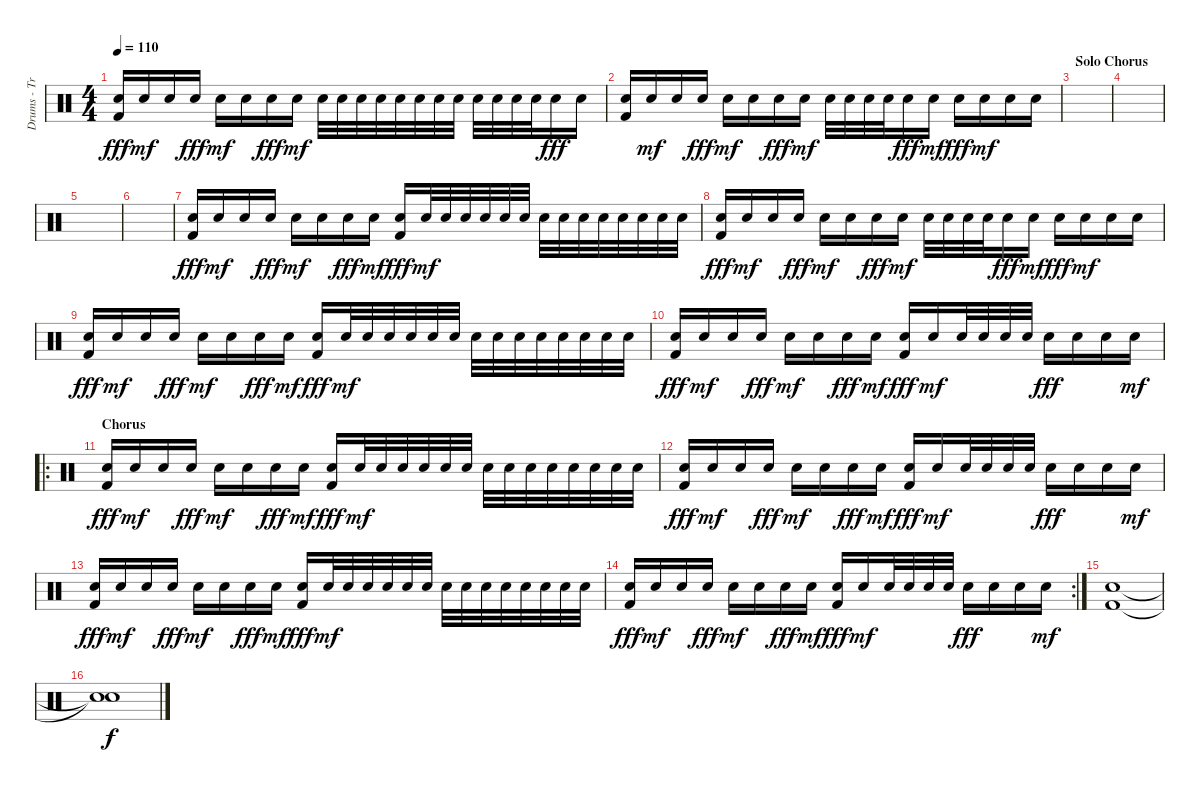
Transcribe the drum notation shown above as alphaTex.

\track ("Drums - Travis" "Drums - Tr") {instrument percussion}
\staff {score}
\articulation defaults
\ts (4 4)
\tempo 110
\clef neutral
\ks c
("Electric Snare (hit)" "Kick (hit) 2").16{dy fff} "Electric Snare (hit)".16{dy mf} "Electric Snare (hit)".16 "Electric Snare (hit)".16{dy fff} "Electric Snare (hit)".16{dy mf} "Electric Snare (hit)".16 "Electric Snare (hit)".16{dy fff} "Electric Snare (hit)".16{dy mf} "Electric Snare (hit)".32 "Electric Snare (hit)".32 "Electric Snare (hit)".32 "Electric Snare (hit)".32 "Electric Snare (hit)".32 "Electric Snare (hit)".32 "Electric Snare (hit)".32 "Electric Snare (hit)".32 "Electric Snare (hit)".32 "Electric Snare (hit)".32 "Electric Snare (hit)".32 "Electric Snare (hit)".32 "Electric Snare (hit)".16{dy fff} "Electric Snare (hit)".16 |
("Electric Snare (hit)" "Kick (hit) 2").16 "Electric Snare (hit)".16{dy mf} "Electric Snare (hit)".16 "Electric Snare (hit)".16{dy fff} "Electric Snare (hit)".16{dy mf} "Electric Snare (hit)".16 "Electric Snare (hit)".16{dy fff} "Electric Snare (hit)".16{dy mf} "Electric Snare (hit)".32 "Electric Snare (hit)".32 "Electric Snare (hit)".32 "Electric Snare (hit)".32 "Electric Snare (hit)".16{dy fff} "Electric Snare (hit)".16{dy mf} "Electric Snare (hit)".16{dy fff} "Electric Snare (hit)".16{dy mf} "Electric Snare (hit)".16 "Electric Snare (hit)".16 |
\section ("" "Solo Chorus")
|
|
|
|
("Electric Snare (hit)" "Kick (hit) 2").16{dy fff} "Electric Snare (hit)".16{dy mf} "Electric Snare (hit)".16 "Electric Snare (hit)".16{dy fff} "Electric Snare (hit)".16{dy mf} "Electric Snare (hit)".16 "Electric Snare (hit)".16{dy fff} "Electric Snare (hit)".16{dy mf} ("Electric Snare (hit)" "Kick (hit) 2").16{dy fff} "Electric Snare (hit)".32{dy mf} "Electric Snare (hit)".32 "Electric Snare (hit)".32 "Electric Snare (hit)".32 "Electric Snare (hit)".32 "Electric Snare (hit)".32 "Electric Snare (hit)".32 "Electric Snare (hit)".32 "Electric Snare (hit)".32 "Electric Snare (hit)".32 "Electric Snare (hit)".32 "Electric Snare (hit)".32 "Electric Snare (hit)".32 "Electric Snare (hit)".32 |
("Electric Snare (hit)" "Kick (hit) 2").16{dy fff} "Electric Snare (hit)".16{dy mf} "Electric Snare (hit)".16 "Electric Snare (hit)".16{dy fff} "Electric Snare (hit)".16{dy mf} "Electric Snare (hit)".16 "Electric Snare (hit)".16{dy fff} "Electric Snare (hit)".16{dy mf} "Electric Snare (hit)".32 "Electric Snare (hit)".32 "Electric Snare (hit)".32 "Electric Snare (hit)".32 "Electric Snare (hit)".16{dy fff} "Electric Snare (hit)".16{dy mf} "Electric Snare (hit)".16{dy fff} "Electric Snare (hit)".16{dy mf} "Electric Snare (hit)".16 "Electric Snare (hit)".16 |
("Electric Snare (hit)" "Kick (hit) 2").16{dy fff} "Electric Snare (hit)".16{dy mf} "Electric Snare (hit)".16 "Electric Snare (hit)".16{dy fff} "Electric Snare (hit)".16{dy mf} "Electric Snare (hit)".16 "Electric Snare (hit)".16{dy fff} "Electric Snare (hit)".16{dy mf} ("Electric Snare (hit)" "Kick (hit) 2").16{dy fff} "Electric Snare (hit)".32{dy mf} "Electric Snare (hit)".32 "Electric Snare (hit)".32 "Electric Snare (hit)".32 "Electric Snare (hit)".32 "Electric Snare (hit)".32 "Electric Snare (hit)".32 "Electric Snare (hit)".32 "Electric Snare (hit)".32 "Electric Snare (hit)".32 "Electric Snare (hit)".32 "Electric Snare (hit)".32 "Electric Snare (hit)".32 "Electric Snare (hit)".32 |
("Electric Snare (hit)" "Kick (hit) 2").16{dy fff} "Electric Snare (hit)".16{dy mf} "Electric Snare (hit)".16 "Electric Snare (hit)".16{dy fff} "Electric Snare (hit)".16{dy mf} "Electric Snare (hit)".16 "Electric Snare (hit)".16{dy fff} "Electric Snare (hit)".16{dy mf} ("Electric Snare (hit)" "Kick (hit) 2").16{dy fff} "Electric Snare (hit)".16{dy mf} "Electric Snare (hit)".32 "Electric Snare (hit)".32 "Electric Snare (hit)".32 "Electric Snare (hit)".32 "Electric Snare (hit)".16{dy fff} "Electric Snare (hit)".16 "Electric Snare (hit)".16 "Electric Snare (hit)".16{dy mf} |
\ro
\section ("" "Chorus")
("Electric Snare (hit)" "Kick (hit) 2").16{dy fff} "Electric Snare (hit)".16{dy mf} "Electric Snare (hit)".16 "Electric Snare (hit)".16{dy fff} "Electric Snare (hit)".16{dy mf} "Electric Snare (hit)".16 "Electric Snare (hit)".16{dy fff} "Electric Snare (hit)".16{dy mf} ("Electric Snare (hit)" "Kick (hit) 2").16{dy fff} "Electric Snare (hit)".32{dy mf} "Electric Snare (hit)".32 "Electric Snare (hit)".32 "Electric Snare (hit)".32 "Electric Snare (hit)".32 "Electric Snare (hit)".32 "Electric Snare (hit)".32 "Electric Snare (hit)".32 "Electric Snare (hit)".32 "Electric Snare (hit)".32 "Electric Snare (hit)".32 "Electric Snare (hit)".32 "Electric Snare (hit)".32 "Electric Snare (hit)".32 |
("Electric Snare (hit)" "Kick (hit) 2").16{dy fff} "Electric Snare (hit)".16{dy mf} "Electric Snare (hit)".16 "Electric Snare (hit)".16{dy fff} "Electric Snare (hit)".16{dy mf} "Electric Snare (hit)".16 "Electric Snare (hit)".16{dy fff} "Electric Snare (hit)".16{dy mf} ("Electric Snare (hit)" "Kick (hit) 2").16{dy fff} "Electric Snare (hit)".16{dy mf} "Electric Snare (hit)".32 "Electric Snare (hit)".32 "Electric Snare (hit)".32 "Electric Snare (hit)".32 "Electric Snare (hit)".16{dy fff} "Electric Snare (hit)".16 "Electric Snare (hit)".16 "Electric Snare (hit)".16{dy mf} |
("Electric Snare (hit)" "Kick (hit) 2").16{dy fff} "Electric Snare (hit)".16{dy mf} "Electric Snare (hit)".16 "Electric Snare (hit)".16{dy fff} "Electric Snare (hit)".16{dy mf} "Electric Snare (hit)".16 "Electric Snare (hit)".16{dy fff} "Electric Snare (hit)".16{dy mf} ("Electric Snare (hit)" "Kick (hit) 2").16{dy fff} "Electric Snare (hit)".32{dy mf} "Electric Snare (hit)".32 "Electric Snare (hit)".32 "Electric Snare (hit)".32 "Electric Snare (hit)".32 "Electric Snare (hit)".32 "Electric Snare (hit)".32 "Electric Snare (hit)".32 "Electric Snare (hit)".32 "Electric Snare (hit)".32 "Electric Snare (hit)".32 "Electric Snare (hit)".32 "Electric Snare (hit)".32 "Electric Snare (hit)".32 |
\rc 2
("Electric Snare (hit)" "Kick (hit) 2").16{dy fff} "Electric Snare (hit)".16{dy mf} "Electric Snare (hit)".16 "Electric Snare (hit)".16{dy fff} "Electric Snare (hit)".16{dy mf} "Electric Snare (hit)".16 "Electric Snare (hit)".16{dy fff} "Electric Snare (hit)".16{dy mf} ("Electric Snare (hit)" "Kick (hit) 2").16{dy fff} "Electric Snare (hit)".16{dy mf} "Electric Snare (hit)".32 "Electric Snare (hit)".32 "Electric Snare (hit)".32 "Electric Snare (hit)".32 "Electric Snare (hit)".16{dy fff} "Electric Snare (hit)".16 "Electric Snare (hit)".16 "Electric Snare (hit)".16{dy mf} |
("Electric Snare (hit)" "Kick (hit) 2").1 |
("Snare (hit)"{t} "Snare (hit)"{t}).1{dy f}
